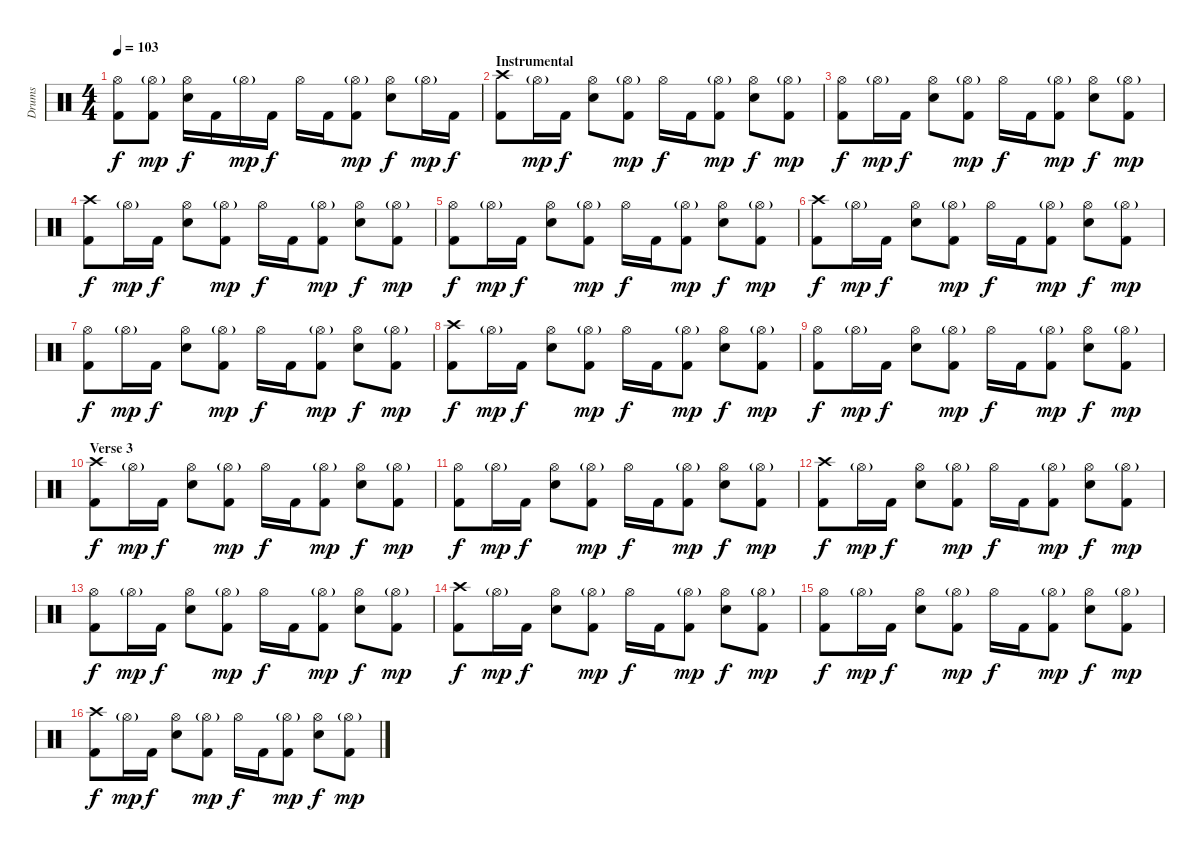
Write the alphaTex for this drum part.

\track ("Drums" "Drums") {instrument percussion}
\staff {score}
\articulation defaults
\ts (4 4)
\tempo 103
\clef neutral
\ks c
("Hi-Hat (open)" "Kick (hit) 2").8{dy f} ("Hi-Hat (open)"{g} "Kick (hit) 2").8{dy mp} ("Hi-Hat (open)" "Snare (hit) 2").16{dy f} "Kick (hit) 2".16 "Hi-Hat (open)"{g}.16{dy mp} "Kick (hit) 2".16{dy f} "Hi-Hat (open)".16 "Kick (hit) 2".16 ("Hi-Hat (open)"{g} "Kick (hit) 2").8{dy mp} ("Hi-Hat (open)" "Snare (hit) 2").8{dy f} "Hi-Hat (open)"{g}.16{dy mp} "Kick (hit) 2".16{dy f} |
\section ("" "Instrumental")
("Crash high (hit)" "Kick (hit) 2").8 "Hi-Hat (open)"{g}.16{dy mp} "Kick (hit) 2".16{dy f} ("Hi-Hat (open)" "Snare (hit) 2").8 ("Hi-Hat (open)"{g} "Kick (hit) 2").8{dy mp} "Hi-Hat (open)".16{dy f} "Kick (hit) 2".16 ("Hi-Hat (open)"{g} "Kick (hit) 2").8{dy mp} ("Hi-Hat (open)" "Snare (hit) 2").8{dy f} ("Hi-Hat (open)"{g} "Kick (hit) 2").8{dy mp} |
("Hi-Hat (open)" "Kick (hit) 2").8{dy f} "Hi-Hat (open)"{g}.16{dy mp} "Kick (hit) 2".16{dy f} ("Hi-Hat (open)" "Snare (hit) 2").8 ("Hi-Hat (open)"{g} "Kick (hit) 2").8{dy mp} "Hi-Hat (open)".16{dy f} "Kick (hit) 2".16 ("Hi-Hat (open)"{g} "Kick (hit) 2").8{dy mp} ("Hi-Hat (open)" "Snare (hit) 2").8{dy f} ("Hi-Hat (open)"{g} "Kick (hit) 2").8{dy mp} |
("Crash high (hit)" "Kick (hit) 2").8{dy f} "Hi-Hat (open)"{g}.16{dy mp} "Kick (hit) 2".16{dy f} ("Hi-Hat (open)" "Snare (hit) 2").8 ("Hi-Hat (open)"{g} "Kick (hit) 2").8{dy mp} "Hi-Hat (open)".16{dy f} "Kick (hit) 2".16 ("Hi-Hat (open)"{g} "Kick (hit) 2").8{dy mp} ("Hi-Hat (open)" "Snare (hit) 2").8{dy f} ("Hi-Hat (open)"{g} "Kick (hit) 2").8{dy mp} |
("Hi-Hat (open)" "Kick (hit) 2").8{dy f} "Hi-Hat (open)"{g}.16{dy mp} "Kick (hit) 2".16{dy f} ("Hi-Hat (open)" "Snare (hit) 2").8 ("Hi-Hat (open)"{g} "Kick (hit) 2").8{dy mp} "Hi-Hat (open)".16{dy f} "Kick (hit) 2".16 ("Hi-Hat (open)"{g} "Kick (hit) 2").8{dy mp} ("Hi-Hat (open)" "Snare (hit) 2").8{dy f} ("Hi-Hat (open)"{g} "Kick (hit) 2").8{dy mp} |
("Crash high (hit)" "Kick (hit) 2").8{dy f} "Hi-Hat (open)"{g}.16{dy mp} "Kick (hit) 2".16{dy f} ("Hi-Hat (open)" "Snare (hit) 2").8 ("Hi-Hat (open)"{g} "Kick (hit) 2").8{dy mp} "Hi-Hat (open)".16{dy f} "Kick (hit) 2".16 ("Hi-Hat (open)"{g} "Kick (hit) 2").8{dy mp} ("Hi-Hat (open)" "Snare (hit) 2").8{dy f} ("Hi-Hat (open)"{g} "Kick (hit) 2").8{dy mp} |
("Hi-Hat (open)" "Kick (hit) 2").8{dy f} "Hi-Hat (open)"{g}.16{dy mp} "Kick (hit) 2".16{dy f} ("Hi-Hat (open)" "Snare (hit) 2").8 ("Hi-Hat (open)"{g} "Kick (hit) 2").8{dy mp} "Hi-Hat (open)".16{dy f} "Kick (hit) 2".16 ("Hi-Hat (open)"{g} "Kick (hit) 2").8{dy mp} ("Hi-Hat (open)" "Snare (hit) 2").8{dy f} ("Hi-Hat (open)"{g} "Kick (hit) 2").8{dy mp} |
("Crash high (hit)" "Kick (hit) 2").8{dy f} "Hi-Hat (open)"{g}.16{dy mp} "Kick (hit) 2".16{dy f} ("Hi-Hat (open)" "Snare (hit) 2").8 ("Hi-Hat (open)"{g} "Kick (hit) 2").8{dy mp} "Hi-Hat (open)".16{dy f} "Kick (hit) 2".16 ("Hi-Hat (open)"{g} "Kick (hit) 2").8{dy mp} ("Hi-Hat (open)" "Snare (hit) 2").8{dy f} ("Hi-Hat (open)"{g} "Kick (hit) 2").8{dy mp} |
("Hi-Hat (open)" "Kick (hit) 2").8{dy f} "Hi-Hat (open)"{g}.16{dy mp} "Kick (hit) 2".16{dy f} ("Hi-Hat (open)" "Snare (hit) 2").8 ("Hi-Hat (open)"{g} "Kick (hit) 2").8{dy mp} "Hi-Hat (open)".16{dy f} "Kick (hit) 2".16 ("Hi-Hat (open)"{g} "Kick (hit) 2").8{dy mp} ("Hi-Hat (open)" "Snare (hit) 2").8{dy f} ("Hi-Hat (open)"{g} "Kick (hit) 2").8{dy mp} |
\section ("" "Verse 3")
("Crash high (hit)" "Kick (hit) 2").8{dy f} "Hi-Hat (open)"{g}.16{dy mp} "Kick (hit) 2".16{dy f} ("Hi-Hat (open)" "Snare (hit) 2").8 ("Hi-Hat (open)"{g} "Kick (hit) 2").8{dy mp} "Hi-Hat (open)".16{dy f} "Kick (hit) 2".16 ("Hi-Hat (open)"{g} "Kick (hit) 2").8{dy mp} ("Hi-Hat (open)" "Snare (hit) 2").8{dy f} ("Hi-Hat (open)"{g} "Kick (hit) 2").8{dy mp} |
("Hi-Hat (open)" "Kick (hit) 2").8{dy f} "Hi-Hat (open)"{g}.16{dy mp} "Kick (hit) 2".16{dy f} ("Hi-Hat (open)" "Snare (hit) 2").8 ("Hi-Hat (open)"{g} "Kick (hit) 2").8{dy mp} "Hi-Hat (open)".16{dy f} "Kick (hit) 2".16 ("Hi-Hat (open)"{g} "Kick (hit) 2").8{dy mp} ("Hi-Hat (open)" "Snare (hit) 2").8{dy f} ("Hi-Hat (open)"{g} "Kick (hit) 2").8{dy mp} |
("Crash high (hit)" "Kick (hit) 2").8{dy f} "Hi-Hat (open)"{g}.16{dy mp} "Kick (hit) 2".16{dy f} ("Hi-Hat (open)" "Snare (hit) 2").8 ("Hi-Hat (open)"{g} "Kick (hit) 2").8{dy mp} "Hi-Hat (open)".16{dy f} "Kick (hit) 2".16 ("Hi-Hat (open)"{g} "Kick (hit) 2").8{dy mp} ("Hi-Hat (open)" "Snare (hit) 2").8{dy f} ("Hi-Hat (open)"{g} "Kick (hit) 2").8{dy mp} |
("Hi-Hat (open)" "Kick (hit) 2").8{dy f} "Hi-Hat (open)"{g}.16{dy mp} "Kick (hit) 2".16{dy f} ("Hi-Hat (open)" "Snare (hit) 2").8 ("Hi-Hat (open)"{g} "Kick (hit) 2").8{dy mp} "Hi-Hat (open)".16{dy f} "Kick (hit) 2".16 ("Hi-Hat (open)"{g} "Kick (hit) 2").8{dy mp} ("Hi-Hat (open)" "Snare (hit) 2").8{dy f} ("Hi-Hat (open)"{g} "Kick (hit) 2").8{dy mp} |
("Crash high (hit)" "Kick (hit) 2").8{dy f} "Hi-Hat (open)"{g}.16{dy mp} "Kick (hit) 2".16{dy f} ("Hi-Hat (open)" "Snare (hit) 2").8 ("Hi-Hat (open)"{g} "Kick (hit) 2").8{dy mp} "Hi-Hat (open)".16{dy f} "Kick (hit) 2".16 ("Hi-Hat (open)"{g} "Kick (hit) 2").8{dy mp} ("Hi-Hat (open)" "Snare (hit) 2").8{dy f} ("Hi-Hat (open)"{g} "Kick (hit) 2").8{dy mp} |
("Hi-Hat (open)" "Kick (hit) 2").8{dy f} "Hi-Hat (open)"{g}.16{dy mp} "Kick (hit) 2".16{dy f} ("Hi-Hat (open)" "Snare (hit) 2").8 ("Hi-Hat (open)"{g} "Kick (hit) 2").8{dy mp} "Hi-Hat (open)".16{dy f} "Kick (hit) 2".16 ("Hi-Hat (open)"{g} "Kick (hit) 2").8{dy mp} ("Hi-Hat (open)" "Snare (hit) 2").8{dy f} ("Hi-Hat (open)"{g} "Kick (hit) 2").8{dy mp} |
("Crash high (hit)" "Kick (hit) 2").8{dy f} "Hi-Hat (open)"{g}.16{dy mp} "Kick (hit) 2".16{dy f} ("Hi-Hat (open)" "Snare (hit) 2").8 ("Hi-Hat (open)"{g} "Kick (hit) 2").8{dy mp} "Hi-Hat (open)".16{dy f} "Kick (hit) 2".16 ("Hi-Hat (open)"{g} "Kick (hit) 2").8{dy mp} ("Hi-Hat (open)" "Snare (hit) 2").8{dy f} ("Hi-Hat (open)"{g} "Kick (hit) 2").8{dy mp}
